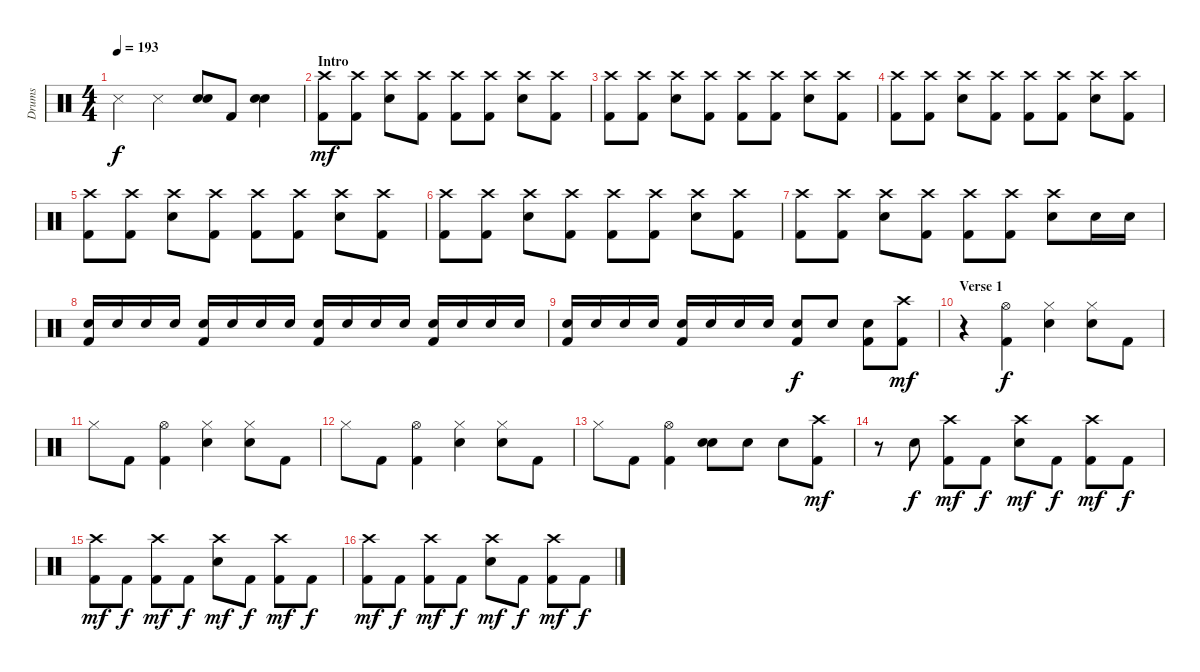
\track ("Drums" "Drums") {instrument percussion}
\staff {score}
\articulation defaults
\ts (4 4)
\tempo 193
\clef neutral
\ks c "Metronome (hit)".4{dy f} "Metronome (hit)".4
("Electric Snare (hit)" "Electric Snare (hit)").8{bd 120} "Kick (hit) 2".8 ("Electric Snare (hit)" "Electric Snare (hit)").4{bd 120} |
\section ("" "Intro")
("Crash high (hit)" "Kick (hit) 2").8{dy mf} ("Crash high (hit)" "Kick (hit) 2").8 ("Crash high (hit)" "Electric Snare (hit)").8 ("Crash high (hit)" "Kick (hit) 2").8 ("Crash high (hit)" "Kick (hit) 2").8 ("Crash high (hit)" "Kick (hit) 2").8 ("Crash high (hit)" "Electric Snare (hit)").8 ("Crash high (hit)" "Kick (hit) 2").8 |
("Crash high (hit)" "Kick (hit) 2").8 ("Crash high (hit)" "Kick (hit) 2").8 ("Crash high (hit)" "Electric Snare (hit)").8 ("Crash high (hit)" "Kick (hit) 2").8 ("Crash high (hit)" "Kick (hit) 2").8 ("Crash high (hit)" "Kick (hit) 2").8 ("Crash high (hit)" "Electric Snare (hit)").8 ("Crash high (hit)" "Kick (hit) 2").8 |
("Crash high (hit)" "Kick (hit) 2").8 ("Crash high (hit)" "Kick (hit) 2").8 ("Crash high (hit)" "Electric Snare (hit)").8 ("Crash high (hit)" "Kick (hit) 2").8 ("Crash high (hit)" "Kick (hit) 2").8 ("Crash high (hit)" "Kick (hit) 2").8 ("Crash high (hit)" "Electric Snare (hit)").8 ("Crash high (hit)" "Kick (hit) 2").8 |
("Crash high (hit)" "Kick (hit) 2").8 ("Crash high (hit)" "Kick (hit) 2").8 ("Crash high (hit)" "Electric Snare (hit)").8 ("Crash high (hit)" "Kick (hit) 2").8 ("Crash high (hit)" "Kick (hit) 2").8 ("Crash high (hit)" "Kick (hit) 2").8 ("Crash high (hit)" "Electric Snare (hit)").8 ("Crash high (hit)" "Kick (hit) 2").8 |
("Crash high (hit)" "Kick (hit) 2").8 ("Crash high (hit)" "Kick (hit) 2").8 ("Crash high (hit)" "Electric Snare (hit)").8 ("Crash high (hit)" "Kick (hit) 2").8 ("Crash high (hit)" "Kick (hit) 2").8 ("Crash high (hit)" "Kick (hit) 2").8 ("Crash high (hit)" "Electric Snare (hit)").8 ("Crash high (hit)" "Kick (hit) 2").8 |
("Crash high (hit)" "Kick (hit) 2").8 ("Crash high (hit)" "Kick (hit) 2").8 ("Crash high (hit)" "Electric Snare (hit)").8 ("Crash high (hit)" "Kick (hit) 2").8 ("Crash high (hit)" "Kick (hit) 2").8 ("Crash high (hit)" "Kick (hit) 2").8 ("Crash high (hit)" "Electric Snare (hit)").8 "Electric Snare (hit)".16 "Electric Snare (hit)".16 |
("Electric Snare (hit)" "Kick (hit) 2").16 "Electric Snare (hit)".16 "Electric Snare (hit)".16 "Electric Snare (hit)".16 ("Electric Snare (hit)" "Kick (hit) 2").16 "Electric Snare (hit)".16 "Electric Snare (hit)".16 "Electric Snare (hit)".16 ("Electric Snare (hit)" "Kick (hit) 2").16 "Electric Snare (hit)".16 "Electric Snare (hit)".16 "Electric Snare (hit)".16 ("Electric Snare (hit)" "Kick (hit) 2").16 "Electric Snare (hit)".16 "Electric Snare (hit)".16 "Electric Snare (hit)".16 |
("Electric Snare (hit)" "Kick (hit) 2").16 "Electric Snare (hit)".16 "Electric Snare (hit)".16 "Electric Snare (hit)".16 ("Electric Snare (hit)" "Kick (hit) 2").16 "Electric Snare (hit)".16 "Electric Snare (hit)".16 "Electric Snare (hit)".16 ("Electric Snare (hit)" "Kick (hit) 2").8{dy f} "Electric Snare (hit)".8 ("Electric Snare (hit)" "Kick (hit) 2").8 ("Crash high (hit)" "Kick (hit) 2").8{dy mf} |
\section ("" "Verse 1")
r.4 ("Hi-Hat (open)" "Kick (hit) 2").4{dy f} ("Hi-Hat (closed)" "Electric Snare (hit)").4 ("Hi-Hat (closed)" "Electric Snare (hit)").8 "Kick (hit) 2".8 |
"Hi-Hat (closed)".8 "Kick (hit) 2".8 ("Hi-Hat (open)" "Kick (hit) 2").4 ("Hi-Hat (closed)" "Electric Snare (hit)").4 ("Hi-Hat (closed)" "Electric Snare (hit)").8 "Kick (hit) 2".8 |
"Hi-Hat (closed)".8 "Kick (hit) 2".8 ("Hi-Hat (open)" "Kick (hit) 2").4 ("Hi-Hat (closed)" "Electric Snare (hit)").4 ("Hi-Hat (closed)" "Electric Snare (hit)").8 "Kick (hit) 2".8 |
"Hi-Hat (closed)".8 "Kick (hit) 2".8 ("Hi-Hat (open)" "Kick (hit) 2").4 ("Electric Snare (hit)" "Electric Snare (hit)").8{bd 120} "Electric Snare (hit)".8 "Electric Snare (hit)".8 ("Crash high (hit)" "Kick (hit) 2").8{dy mf} |
r.8 "Electric Snare (hit)".8{dy f} ("Crash high (hit)" "Kick (hit) 2").8{dy mf} "Kick (hit) 2".8{dy f} ("Crash high (hit)" "Electric Snare (hit)").8{dy mf} "Kick (hit) 2".8{dy f} ("Crash high (hit)" "Kick (hit) 2").8{dy mf} "Kick (hit) 2".8{dy f} |
("Crash high (hit)" "Kick (hit) 2").8{dy mf} "Kick (hit) 2".8{dy f} ("Crash high (hit)" "Kick (hit) 2").8{dy mf} "Kick (hit) 2".8{dy f} ("Crash high (hit)" "Electric Snare (hit)").8{dy mf} "Kick (hit) 2".8{dy f} ("Crash high (hit)" "Kick (hit) 2").8{dy mf} "Kick (hit) 2".8{dy f} |
("Crash high (hit)" "Kick (hit) 2").8{dy mf} "Kick (hit) 2".8{dy f} ("Crash high (hit)" "Kick (hit) 2").8{dy mf} "Kick (hit) 2".8{dy f} ("Crash high (hit)" "Electric Snare (hit)").8{dy mf} "Kick (hit) 2".8{dy f} ("Crash high (hit)" "Kick (hit) 2").8{dy mf} "Kick (hit) 2".8{dy f}
